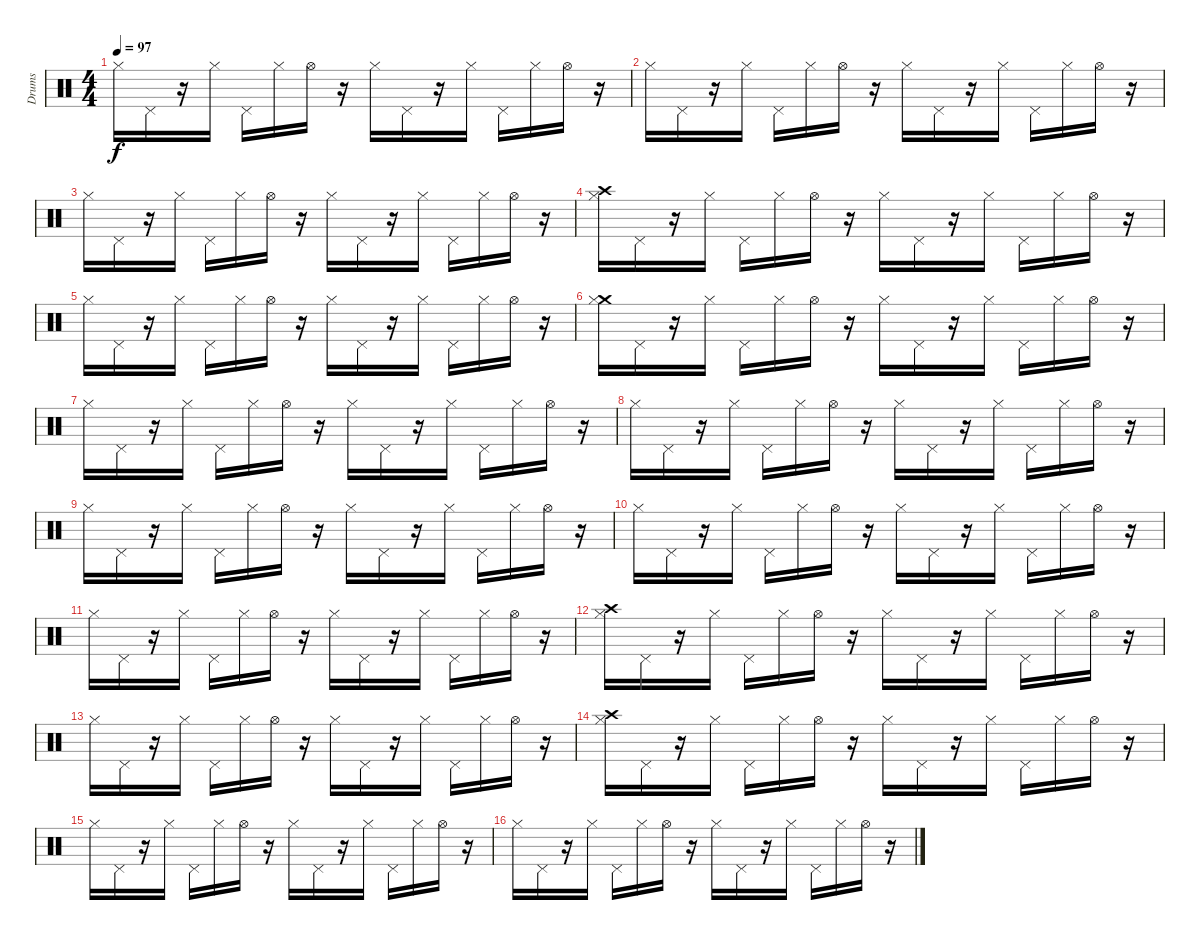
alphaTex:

\track ("Drums" "Drums") {instrument percussion}
\staff {score}
\articulation defaults
\ts (4 4)
\tempo 97
\clef neutral
\ks c "Hi-Hat (closed)".16{dy f} "Pedal Hi-Hat (hit)".16
r.16 "Hi-Hat (closed)".16 "Pedal Hi-Hat (hit)".16 "Hi-Hat (closed)".16 "Hi-Hat (open)".16 r.16 "Hi-Hat (closed)".16 "Pedal Hi-Hat (hit)".16 r.16 "Hi-Hat (closed)".16 "Pedal Hi-Hat (hit)".16 "Hi-Hat (closed)".16 "Hi-Hat (open)".16 r.16 |
"Hi-Hat (closed)".16 "Pedal Hi-Hat (hit)".16 r.16 "Hi-Hat (closed)".16 "Pedal Hi-Hat (hit)".16 "Hi-Hat (closed)".16 "Hi-Hat (open)".16 r.16 "Hi-Hat (closed)".16 "Pedal Hi-Hat (hit)".16 r.16 "Hi-Hat (closed)".16 "Pedal Hi-Hat (hit)".16 "Hi-Hat (closed)".16 "Hi-Hat (open)".16 r.16 |
"Hi-Hat (closed)".16 "Pedal Hi-Hat (hit)".16 r.16 "Hi-Hat (closed)".16 "Pedal Hi-Hat (hit)".16 "Hi-Hat (closed)".16 "Hi-Hat (open)".16 r.16 "Hi-Hat (closed)".16 "Pedal Hi-Hat (hit)".16 r.16 "Hi-Hat (closed)".16 "Pedal Hi-Hat (hit)".16 "Hi-Hat (closed)".16 "Hi-Hat (open)".16 r.16 |
("Crash high (hit)" "Hi-Hat (closed)").16 "Pedal Hi-Hat (hit)".16 r.16 "Hi-Hat (closed)".16 "Pedal Hi-Hat (hit)".16 "Hi-Hat (closed)".16 "Hi-Hat (open)".16 r.16 "Hi-Hat (closed)".16 "Pedal Hi-Hat (hit)".16 r.16 "Hi-Hat (closed)".16 "Pedal Hi-Hat (hit)".16 "Hi-Hat (closed)".16 "Hi-Hat (open)".16 r.16 |
"Hi-Hat (closed)".16 "Pedal Hi-Hat (hit)".16 r.16 "Hi-Hat (closed)".16 "Pedal Hi-Hat (hit)".16 "Hi-Hat (closed)".16 "Hi-Hat (open)".16 r.16 "Hi-Hat (closed)".16 "Pedal Hi-Hat (hit)".16 r.16 "Hi-Hat (closed)".16 "Pedal Hi-Hat (hit)".16 "Hi-Hat (closed)".16 "Hi-Hat (open)".16 r.16 |
("Crash medium (hit)" "Hi-Hat (closed)").16 "Pedal Hi-Hat (hit)".16 r.16 "Hi-Hat (closed)".16 "Pedal Hi-Hat (hit)".16 "Hi-Hat (closed)".16 "Hi-Hat (open)".16 r.16 "Hi-Hat (closed)".16 "Pedal Hi-Hat (hit)".16 r.16 "Hi-Hat (closed)".16 "Pedal Hi-Hat (hit)".16 "Hi-Hat (closed)".16 "Hi-Hat (open)".16 r.16 |
"Hi-Hat (closed)".16 "Pedal Hi-Hat (hit)".16 r.16 "Hi-Hat (closed)".16 "Pedal Hi-Hat (hit)".16 "Hi-Hat (closed)".16 "Hi-Hat (open)".16 r.16 "Hi-Hat (closed)".16 "Pedal Hi-Hat (hit)".16 r.16 "Hi-Hat (closed)".16 "Pedal Hi-Hat (hit)".16 "Hi-Hat (closed)".16 "Hi-Hat (open)".16 r.16 |
"Hi-Hat (closed)".16 "Pedal Hi-Hat (hit)".16 r.16 "Hi-Hat (closed)".16 "Pedal Hi-Hat (hit)".16 "Hi-Hat (closed)".16 "Hi-Hat (open)".16 r.16 "Hi-Hat (closed)".16 "Pedal Hi-Hat (hit)".16 r.16 "Hi-Hat (closed)".16 "Pedal Hi-Hat (hit)".16 "Hi-Hat (closed)".16 "Hi-Hat (open)".16 r.16 |
"Hi-Hat (closed)".16 "Pedal Hi-Hat (hit)".16 r.16 "Hi-Hat (closed)".16 "Pedal Hi-Hat (hit)".16 "Hi-Hat (closed)".16 "Hi-Hat (open)".16 r.16 "Hi-Hat (closed)".16 "Pedal Hi-Hat (hit)".16 r.16 "Hi-Hat (closed)".16 "Pedal Hi-Hat (hit)".16 "Hi-Hat (closed)".16 "Hi-Hat (open)".16 r.16 |
"Hi-Hat (closed)".16 "Pedal Hi-Hat (hit)".16 r.16 "Hi-Hat (closed)".16 "Pedal Hi-Hat (hit)".16 "Hi-Hat (closed)".16 "Hi-Hat (open)".16 r.16 "Hi-Hat (closed)".16 "Pedal Hi-Hat (hit)".16 r.16 "Hi-Hat (closed)".16 "Pedal Hi-Hat (hit)".16 "Hi-Hat (closed)".16 "Hi-Hat (open)".16 r.16 |
"Hi-Hat (closed)".16 "Pedal Hi-Hat (hit)".16 r.16 "Hi-Hat (closed)".16 "Pedal Hi-Hat (hit)".16 "Hi-Hat (closed)".16 "Hi-Hat (open)".16 r.16 "Hi-Hat (closed)".16 "Pedal Hi-Hat (hit)".16 r.16 "Hi-Hat (closed)".16 "Pedal Hi-Hat (hit)".16 "Hi-Hat (closed)".16 "Hi-Hat (open)".16 r.16 |
("Crash high (hit)" "Hi-Hat (closed)").16 "Pedal Hi-Hat (hit)".16 r.16 "Hi-Hat (closed)".16 "Pedal Hi-Hat (hit)".16 "Hi-Hat (closed)".16 "Hi-Hat (open)".16 r.16 "Hi-Hat (closed)".16 "Pedal Hi-Hat (hit)".16 r.16 "Hi-Hat (closed)".16 "Pedal Hi-Hat (hit)".16 "Hi-Hat (closed)".16 "Hi-Hat (open)".16 r.16 |
"Hi-Hat (closed)".16 "Pedal Hi-Hat (hit)".16 r.16 "Hi-Hat (closed)".16 "Pedal Hi-Hat (hit)".16 "Hi-Hat (closed)".16 "Hi-Hat (open)".16 r.16 "Hi-Hat (closed)".16 "Pedal Hi-Hat (hit)".16 r.16 "Hi-Hat (closed)".16 "Pedal Hi-Hat (hit)".16 "Hi-Hat (closed)".16 "Hi-Hat (open)".16 r.16 |
("Crash high (hit)" "Hi-Hat (closed)").16 "Pedal Hi-Hat (hit)".16 r.16 "Hi-Hat (closed)".16 "Pedal Hi-Hat (hit)".16 "Hi-Hat (closed)".16 "Hi-Hat (open)".16 r.16 "Hi-Hat (closed)".16 "Pedal Hi-Hat (hit)".16 r.16 "Hi-Hat (closed)".16 "Pedal Hi-Hat (hit)".16 "Hi-Hat (closed)".16 "Hi-Hat (open)".16 r.16 |
"Hi-Hat (closed)".16 "Pedal Hi-Hat (hit)".16 r.16 "Hi-Hat (closed)".16 "Pedal Hi-Hat (hit)".16 "Hi-Hat (closed)".16 "Hi-Hat (open)".16 r.16 "Hi-Hat (closed)".16 "Pedal Hi-Hat (hit)".16 r.16 "Hi-Hat (closed)".16 "Pedal Hi-Hat (hit)".16 "Hi-Hat (closed)".16 "Hi-Hat (open)".16 r.16 |
"Hi-Hat (closed)".16 "Pedal Hi-Hat (hit)".16 r.16 "Hi-Hat (closed)".16 "Pedal Hi-Hat (hit)".16 "Hi-Hat (closed)".16 "Hi-Hat (open)".16 r.16 "Hi-Hat (closed)".16 "Pedal Hi-Hat (hit)".16 r.16 "Hi-Hat (closed)".16 "Pedal Hi-Hat (hit)".16 "Hi-Hat (closed)".16 "Hi-Hat (open)".16 r.16
